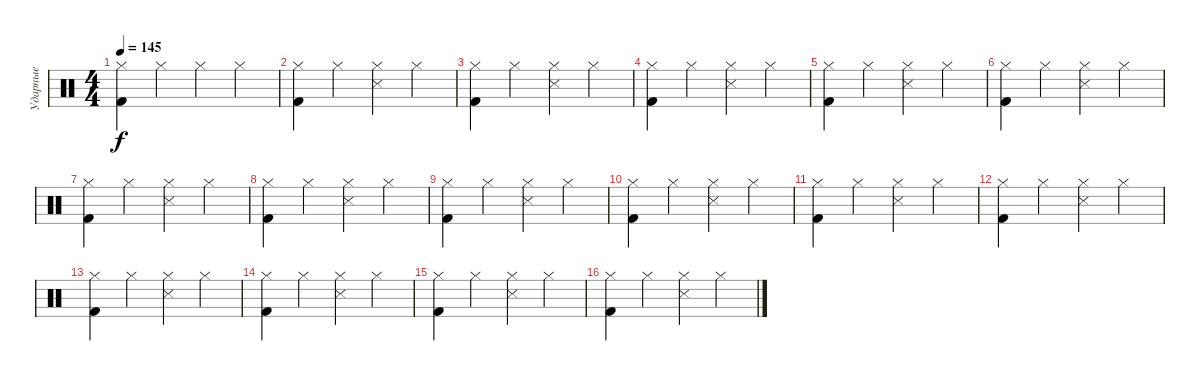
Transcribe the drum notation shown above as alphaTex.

\track ("Ударные" "Ударные") {instrument percussion}
\staff {score}
\articulation defaults
\ts (4 4)
\tempo 145
\clef neutral
\ks c
("Kick (hit) 2" "Hi-Hat (closed)").4{dy f} "Hi-Hat (closed)".4 "Hi-Hat (closed)".4 "Hi-Hat (closed)".4 |
("Hi-Hat (closed)" "Kick (hit) 2").4 "Hi-Hat (closed)".4 ("Snare (side stick) 3" "Hi-Hat (closed)").4 "Hi-Hat (closed)".4 |
("Hi-Hat (closed)" "Kick (hit) 2").4 "Hi-Hat (closed)".4 ("Snare (side stick) 3" "Hi-Hat (closed)").4 "Hi-Hat (closed)".4 |
("Kick (hit) 2" "Hi-Hat (closed)").4 "Hi-Hat (closed)".4 ("Hi-Hat (closed)" "Snare (side stick) 3").4 "Hi-Hat (closed)".4 |
("Hi-Hat (closed)" "Kick (hit) 2").4 "Hi-Hat (closed)".4 ("Hi-Hat (closed)" "Snare (side stick) 3").4 "Hi-Hat (closed)".4 |
("Hi-Hat (closed)" "Kick (hit) 2").4 "Hi-Hat (closed)".4 ("Hi-Hat (closed)" "Snare (side stick) 3").4 "Hi-Hat (closed)".4 |
("Hi-Hat (closed)" "Kick (hit) 2").4 "Hi-Hat (closed)".4 ("Snare (side stick) 3" "Hi-Hat (closed)").4 "Hi-Hat (closed)".4 |
("Kick (hit) 2" "Hi-Hat (closed)").4 "Hi-Hat (closed)".4 ("Hi-Hat (closed)" "Snare (side stick) 3").4 "Hi-Hat (closed)".4 |
("Hi-Hat (closed)" "Kick (hit) 2").4 "Hi-Hat (closed)".4 ("Hi-Hat (closed)" "Snare (side stick) 3").4 "Hi-Hat (closed)".4 |
("Kick (hit) 2" "Hi-Hat (closed)").4 "Hi-Hat (closed)".4 ("Snare (side stick) 3" "Hi-Hat (closed)").4 "Hi-Hat (closed)".4 |
("Hi-Hat (closed)" "Kick (hit) 2").4 "Hi-Hat (closed)".4 ("Snare (side stick) 3" "Hi-Hat (closed)").4 "Hi-Hat (closed)".4 |
("Kick (hit) 2" "Hi-Hat (closed)").4 "Hi-Hat (closed)".4 ("Snare (side stick) 3" "Hi-Hat (closed)").4 "Hi-Hat (closed)".4 |
("Hi-Hat (closed)" "Kick (hit) 2").4 "Hi-Hat (closed)".4 ("Hi-Hat (closed)" "Snare (side stick) 3").4 "Hi-Hat (closed)".4 |
("Kick (hit) 2" "Hi-Hat (closed)").4 "Hi-Hat (closed)".4 ("Snare (side stick) 3" "Hi-Hat (closed)").4 "Hi-Hat (closed)".4 |
("Hi-Hat (closed)" "Kick (hit) 2").4 "Hi-Hat (closed)".4 ("Snare (side stick) 3" "Hi-Hat (closed)").4 "Hi-Hat (closed)".4 |
("Kick (hit) 2" "Hi-Hat (closed)").4 "Hi-Hat (closed)".4 ("Hi-Hat (closed)" "Snare (side stick) 3").4 "Hi-Hat (closed)".4
